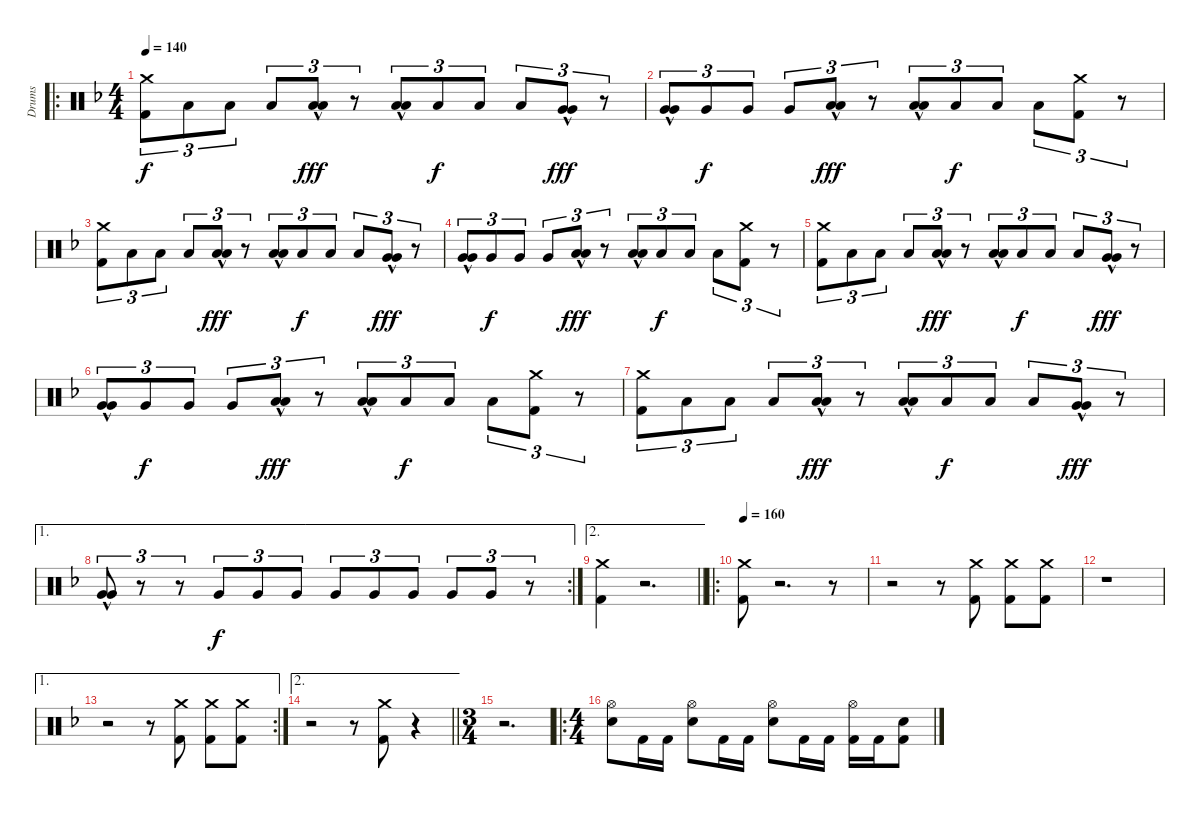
\track ("Drums" "Drums") {instrument percussion}
\staff {score}
\articulation defaults
\ro
\ts (4 4)
\tempo 140
\clef neutral
\ks f
("Crash medium (hit)" "Kick (hit) 2").8{tu (3 2) dy f} "Low Tom (hit)".8{tu (3 2)} "Low Tom (hit)".8{tu (3 2)} "Low Tom (hit)".8{tu (3 2)} ("Low Tom (hit)"{hac} "Low Tom (hit)"{hac}).8{tu (3 2) dy fff} r.8{tu (3 2)} ("Low Tom (hit)"{hac} "Low Tom (hit)"{hac}).8{tu (3 2)} "Low Tom (hit)".8{tu (3 2) dy f} "Low Tom (hit)".8{tu (3 2)} "Low Tom (hit)".8{tu (3 2)} ("Very Low Tom (hit)"{hac} "Very Low Tom (hit)"{hac}).8{tu (3 2) dy fff} r.8{tu (3 2)} |
("Very Low Tom (hit)"{hac} "Very Low Tom (hit)"{hac}).8{tu (3 2)} "Very Low Tom (hit)".8{tu (3 2) dy f} "Very Low Tom (hit)".8{tu (3 2)} "Very Low Tom (hit)".8{tu (3 2)} ("Low Floor Tom (hit)"{hac} "Low Floor Tom (hit)"{hac}).8{tu (3 2) dy fff} r.8{tu (3 2)} ("Low Floor Tom (hit)" "Low Floor Tom (hit)"{hac}).8{tu (3 2)} "Low Floor Tom (hit)".8{tu (3 2) dy f} "Low Floor Tom (hit)".8{tu (3 2)} "Low Floor Tom (hit)".8{tu (3 2)} ("Crash medium (hit)" "Kick (hit) 2").8{tu (3 2)} r.8{tu (3 2)} |
("Crash medium (hit)" "Kick (hit) 2").8{tu (3 2)} "Low Tom (hit)".8{tu (3 2)} "Low Tom (hit)".8{tu (3 2)} "Low Tom (hit)".8{tu (3 2)} ("Low Tom (hit)"{hac} "Low Tom (hit)"{hac}).8{tu (3 2) dy fff} r.8{tu (3 2)} ("Low Tom (hit)"{hac} "Low Tom (hit)"{hac}).8{tu (3 2)} "Low Tom (hit)".8{tu (3 2) dy f} "Low Tom (hit)".8{tu (3 2)} "Low Tom (hit)".8{tu (3 2)} ("Very Low Tom (hit)"{hac} "Very Low Tom (hit)"{hac}).8{tu (3 2) dy fff} r.8{tu (3 2)} |
("Very Low Tom (hit)"{hac} "Very Low Tom (hit)"{hac}).8{tu (3 2)} "Very Low Tom (hit)".8{tu (3 2) dy f} "Very Low Tom (hit)".8{tu (3 2)} "Very Low Tom (hit)".8{tu (3 2)} ("Low Floor Tom (hit)"{hac} "Low Floor Tom (hit)"{hac}).8{tu (3 2) dy fff} r.8{tu (3 2)} ("Low Floor Tom (hit)"{hac} "Low Floor Tom (hit)"{hac}).8{tu (3 2)} "Low Floor Tom (hit)".8{tu (3 2) dy f} "Low Floor Tom (hit)".8{tu (3 2)} "Low Floor Tom (hit)".8{tu (3 2)} ("Crash medium (hit)" "Kick (hit) 2").8{tu (3 2)} r.8{tu (3 2)} |
("Crash medium (hit)" "Kick (hit) 2").8{tu (3 2)} "Low Tom (hit)".8{tu (3 2)} "Low Tom (hit)".8{tu (3 2)} "Low Tom (hit)".8{tu (3 2)} ("Low Tom (hit)"{hac} "Low Tom (hit)"{hac}).8{tu (3 2) dy fff} r.8{tu (3 2)} ("Low Tom (hit)"{hac} "Low Tom (hit)"{hac}).8{tu (3 2)} "Low Tom (hit)".8{tu (3 2) dy f} "Low Tom (hit)".8{tu (3 2)} "Low Tom (hit)".8{tu (3 2)} ("Very Low Tom (hit)"{hac} "Very Low Tom (hit)"{hac}).8{tu (3 2) dy fff} r.8{tu (3 2)} |
("Very Low Tom (hit)"{hac} "Very Low Tom (hit)"{hac}).8{tu (3 2)} "Very Low Tom (hit)".8{tu (3 2) dy f} "Very Low Tom (hit)".8{tu (3 2)} "Very Low Tom (hit)".8{tu (3 2)} ("Low Floor Tom (hit)"{hac} "Low Floor Tom (hit)"{hac}).8{tu (3 2) dy fff} r.8{tu (3 2)} ("Low Floor Tom (hit)"{hac} "Low Floor Tom (hit)"{hac}).8{tu (3 2)} "Low Floor Tom (hit)".8{tu (3 2) dy f} "Low Floor Tom (hit)".8{tu (3 2)} "Low Floor Tom (hit)".8{tu (3 2)} ("Crash medium (hit)" "Kick (hit) 2").8{tu (3 2)} r.8{tu (3 2)} |
("Crash medium (hit)" "Kick (hit) 2").8{tu (3 2)} "Low Tom (hit)".8{tu (3 2)} "Low Tom (hit)".8{tu (3 2)} "Low Tom (hit)".8{tu (3 2)} ("Low Tom (hit)"{hac} "Low Tom (hit)"{hac}).8{tu (3 2) dy fff} r.8{tu (3 2)} ("Low Tom (hit)"{hac} "Low Tom (hit)"{hac}).8{tu (3 2)} "Low Tom (hit)".8{tu (3 2) dy f} "Low Tom (hit)".8{tu (3 2)} "Low Tom (hit)".8{tu (3 2)} ("Very Low Tom (hit)"{hac} "Very Low Tom (hit)"{hac}).8{tu (3 2) dy fff} r.8{tu (3 2)} |
\ae 1
\rc 2
("Very Low Tom (hit)"{hac} "Very Low Tom (hit)"{hac}).8{tu (3 2)} r.8{tu (3 2)} r.8{tu (3 2)} "Very Low Tom (hit)".8{tu (3 2) dy f} "Very Low Tom (hit)".8{tu (3 2)} "Very Low Tom (hit)".8{tu (3 2)} "Very Low Tom (hit)".8{tu (3 2)} "Very Low Tom (hit)".8{tu (3 2)} "Very Low Tom (hit)".8{tu (3 2)} "Very Low Tom (hit)".8{tu (3 2)} "Very Low Tom (hit)".8{tu (3 2)} r.8{tu (3 2)} |
\ae 2
\barLineRight lightlight
("Crash medium (hit)" "Kick (hit) 2").4 r.2{d} |
\ro
\tempo 160
("Crash medium (hit)" "Kick (hit) 2").8 r.2{d} r.8 |
r.2 r.8 ("Crash medium (hit)" "Kick (hit) 2").8 ("Crash medium (hit)" "Kick (hit) 2").8 ("Crash medium (hit)" "Kick (hit) 2").8 |
r.1 |
\ae 1
\rc 2
r.2 r.8 ("Crash medium (hit)" "Kick (hit) 2").8 ("Crash medium (hit)" "Kick (hit) 2").8 ("Crash medium (hit)" "Kick (hit) 2").8 |
\ae 2
\barLineRight lightlight
r.2 r.8 ("Crash medium (hit)" "Kick (hit) 2").8 r.4 |
\ts (3 4)
r.2{d} |
\ro
\ts (4 4)
("Hi-Hat (open)" "Electric Snare (hit)").8 "Kick (hit) 2".16 "Kick (hit) 2".16 ("Hi-Hat (open)" "Electric Snare (hit)").8 "Kick (hit) 2".16 "Kick (hit) 2".16 ("Hi-Hat (open)" "Electric Snare (hit)").8 "Kick (hit) 2".16 "Kick (hit) 2".16 ("Hi-Hat (open)" "Kick (hit) 2").16 "Kick (hit) 2".16 ("Electric Snare (hit)" "Kick (hit) 2").8
